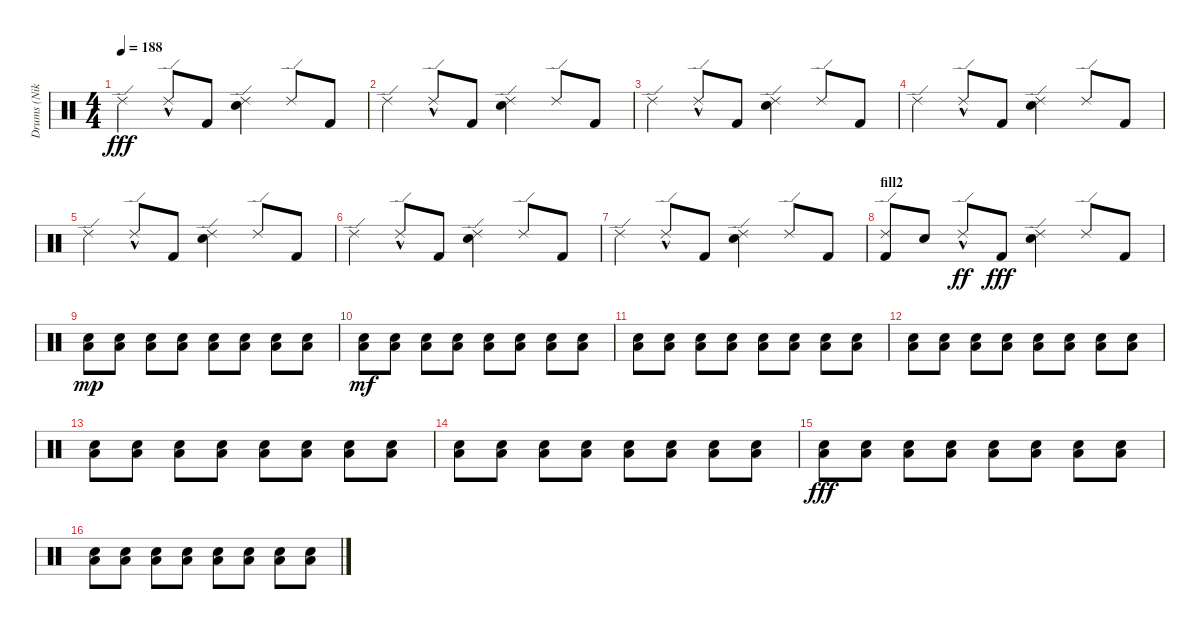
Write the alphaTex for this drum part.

\track ("Drums (Niko)" "Drums (Nik") {instrument percussion}
\staff {score}
\articulation defaults
\ts (4 4)
\tempo 188
\clef neutral
\ks c "Ride (edge) 2".4{dy fff} "Ride (edge) 2"{hac}.8 "Kick (hit) 2".8
("Ride (edge) 2" "Electric Snare (hit)").4 "Ride (edge) 2".8 "Kick (hit) 2".8 |
"Ride (edge) 2".4 "Ride (edge) 2"{hac}.8 "Kick (hit) 2".8 ("Ride (edge) 2" "Electric Snare (hit)").4 "Ride (edge) 2".8 "Kick (hit) 2".8 |
"Ride (edge) 2".4 "Ride (edge) 2"{hac}.8 "Kick (hit) 2".8 ("Ride (edge) 2" "Electric Snare (hit)").4 "Ride (edge) 2".8 "Kick (hit) 2".8 |
"Ride (edge) 2".4 "Ride (edge) 2"{hac}.8 "Kick (hit) 2".8 ("Ride (edge) 2" "Electric Snare (hit)").4 "Ride (edge) 2".8 "Kick (hit) 2".8 |
"Ride (edge) 2".4 "Ride (edge) 2"{hac}.8 "Kick (hit) 2".8 ("Ride (edge) 2" "Electric Snare (hit)").4 "Ride (edge) 2".8 "Kick (hit) 2".8 |
"Ride (edge) 2".4 "Ride (edge) 2"{hac}.8 "Kick (hit) 2".8 ("Ride (edge) 2" "Electric Snare (hit)").4 "Ride (edge) 2".8 "Kick (hit) 2".8 |
"Ride (edge) 2".4 "Ride (edge) 2"{hac}.8 "Kick (hit) 2".8 ("Ride (edge) 2" "Electric Snare (hit)").4 "Ride (edge) 2".8 "Kick (hit) 2".8 |
\section ("" "fill2")
("Ride (edge) 2" "Kick (hit) 2").8 "Electric Snare (hit)".8 "Ride (edge) 2"{hac}.8{dy ff} "Kick (hit) 2".8{dy fff} ("Ride (edge) 2" "Electric Snare (hit)").4 "Ride (edge) 2".8 "Kick (hit) 2".8 |
("Electric Snare (hit)" "Low Floor Tom (hit)").8{dy mp} ("Electric Snare (hit)" "Low Floor Tom (hit)").8 ("Electric Snare (hit)" "Low Floor Tom (hit)").8 ("Electric Snare (hit)" "Low Floor Tom (hit)").8 ("Electric Snare (hit)" "Low Floor Tom (hit)").8 ("Electric Snare (hit)" "Low Floor Tom (hit)").8 ("Electric Snare (hit)" "Low Floor Tom (hit)").8 ("Electric Snare (hit)" "Low Floor Tom (hit)").8 |
("Electric Snare (hit)" "Low Floor Tom (hit)").8{dy mf} ("Electric Snare (hit)" "Low Floor Tom (hit)").8 ("Electric Snare (hit)" "Low Floor Tom (hit)").8 ("Electric Snare (hit)" "Low Floor Tom (hit)").8 ("Electric Snare (hit)" "Low Floor Tom (hit)").8 ("Electric Snare (hit)" "Low Floor Tom (hit)").8 ("Electric Snare (hit)" "Low Floor Tom (hit)").8 ("Electric Snare (hit)" "Low Floor Tom (hit)").8 |
("Electric Snare (hit)" "Low Floor Tom (hit)").8 ("Electric Snare (hit)" "Low Floor Tom (hit)").8 ("Electric Snare (hit)" "Low Floor Tom (hit)").8 ("Electric Snare (hit)" "Low Floor Tom (hit)").8 ("Electric Snare (hit)" "Low Floor Tom (hit)").8 ("Electric Snare (hit)" "Low Floor Tom (hit)").8 ("Electric Snare (hit)" "Low Floor Tom (hit)").8 ("Electric Snare (hit)" "Low Floor Tom (hit)").8 |
("Electric Snare (hit)" "Low Floor Tom (hit)").8 ("Electric Snare (hit)" "Low Floor Tom (hit)").8 ("Electric Snare (hit)" "Low Floor Tom (hit)").8 ("Electric Snare (hit)" "Low Floor Tom (hit)").8 ("Electric Snare (hit)" "Low Floor Tom (hit)").8 ("Electric Snare (hit)" "Low Floor Tom (hit)").8 ("Electric Snare (hit)" "Low Floor Tom (hit)").8 ("Electric Snare (hit)" "Low Floor Tom (hit)").8 |
("Electric Snare (hit)" "Low Floor Tom (hit)").8 ("Electric Snare (hit)" "Low Floor Tom (hit)").8 ("Electric Snare (hit)" "Low Floor Tom (hit)").8 ("Electric Snare (hit)" "Low Floor Tom (hit)").8 ("Electric Snare (hit)" "Low Floor Tom (hit)").8 ("Electric Snare (hit)" "Low Floor Tom (hit)").8 ("Electric Snare (hit)" "Low Floor Tom (hit)").8 ("Electric Snare (hit)" "Low Floor Tom (hit)").8 |
("Electric Snare (hit)" "Low Floor Tom (hit)").8 ("Electric Snare (hit)" "Low Floor Tom (hit)").8 ("Electric Snare (hit)" "Low Floor Tom (hit)").8 ("Electric Snare (hit)" "Low Floor Tom (hit)").8 ("Electric Snare (hit)" "Low Floor Tom (hit)").8 ("Electric Snare (hit)" "Low Floor Tom (hit)").8 ("Electric Snare (hit)" "Low Floor Tom (hit)").8 ("Electric Snare (hit)" "Low Floor Tom (hit)").8 |
("Electric Snare (hit)" "Low Floor Tom (hit)").8{dy fff} ("Electric Snare (hit)" "Low Floor Tom (hit)").8 ("Electric Snare (hit)" "Low Floor Tom (hit)").8 ("Electric Snare (hit)" "Low Floor Tom (hit)").8 ("Electric Snare (hit)" "Low Floor Tom (hit)").8 ("Electric Snare (hit)" "Low Floor Tom (hit)").8 ("Electric Snare (hit)" "Low Floor Tom (hit)").8 ("Electric Snare (hit)" "Low Floor Tom (hit)").8 |
("Electric Snare (hit)" "Low Floor Tom (hit)").8 ("Electric Snare (hit)" "Low Floor Tom (hit)").8 ("Electric Snare (hit)" "Low Floor Tom (hit)").8 ("Electric Snare (hit)" "Low Floor Tom (hit)").8 ("Electric Snare (hit)" "Low Floor Tom (hit)").8 ("Electric Snare (hit)" "Low Floor Tom (hit)").8 ("Electric Snare (hit)" "Low Floor Tom (hit)").8 ("Electric Snare (hit)" "Low Floor Tom (hit)").8
